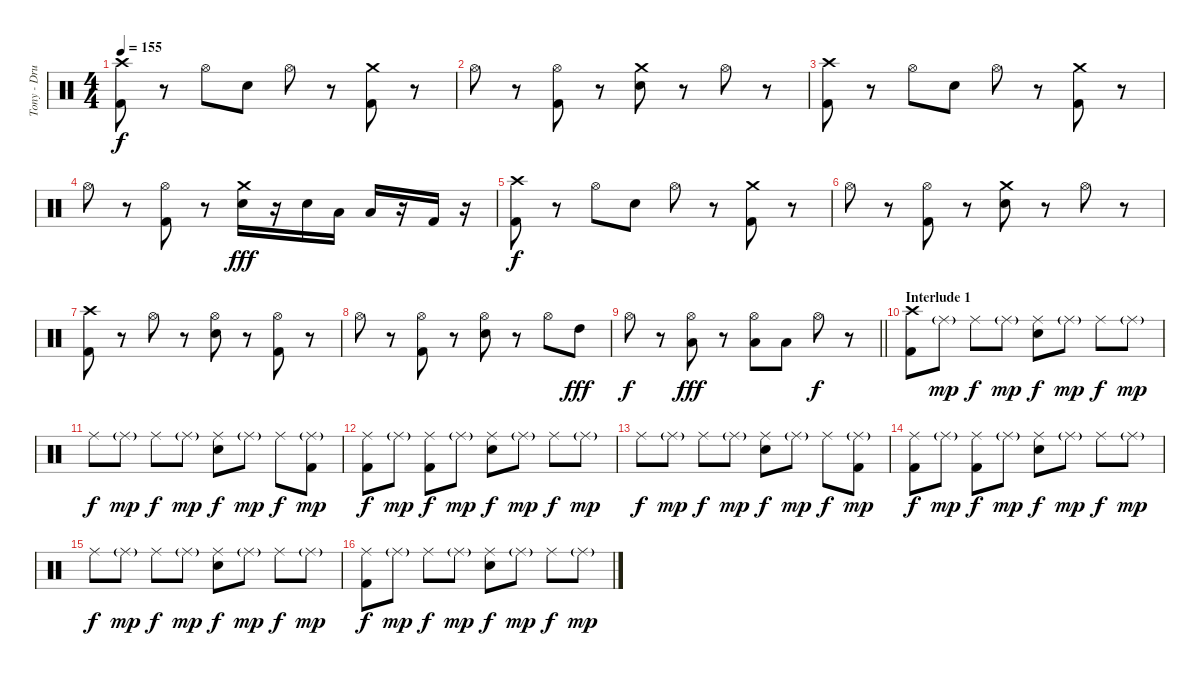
\track ("Tony - Drums" "Tony - Dru") {instrument percussion}
\staff {score}
\articulation defaults
\ts (4 4)
\tempo 155
\clef neutral
\ks c
("Crash high (hit)" "Kick (hit) 2").8{dy f} r.8 "Hi-Hat (open)".8 "Electric Snare (hit)".8 "Hi-Hat (open)".8 r.8 ("Crash medium (hit)" "Kick (hit) 2").8 r.8 |
"Hi-Hat (open)".8 r.8 ("Hi-Hat (open)" "Kick (hit) 2").8 r.8 ("Crash medium (hit)" "Electric Snare (hit)").8 r.8 "Hi-Hat (open)".8 r.8 |
("Crash high (hit)" "Kick (hit) 2").8 r.8 "Hi-Hat (open)".8 "Electric Snare (hit)".8 "Hi-Hat (open)".8 r.8 ("Crash medium (hit)" "Kick (hit) 2").8 r.8 |
"Hi-Hat (open)".8 r.8 ("Hi-Hat (open)" "Kick (hit) 2").8 r.8 ("Crash medium (hit)" "Electric Snare (hit)").16{dy fff} r.16 "Electric Snare (hit)".16 "Low Tom (hit)".16 "Low Floor Tom (hit)".16 r.16 "Kick (hit) 2".16 r.16 |
("Crash high (hit)" "Kick (hit) 2").8{dy f} r.8 "Hi-Hat (open)".8 "Electric Snare (hit)".8 "Hi-Hat (open)".8 r.8 ("Crash medium (hit)" "Kick (hit) 2").8 r.8 |
"Hi-Hat (open)".8 r.8 ("Hi-Hat (open)" "Kick (hit) 2").8 r.8 ("Crash medium (hit)" "Electric Snare (hit)").8 r.8 "Hi-Hat (open)".8 r.8 |
("Crash high (hit)" "Kick (hit) 2").8 r.8 "Hi-Hat (open)".8 r.8 ("Hi-Hat (open)" "Electric Snare (hit)").8 r.8 ("Hi-Hat (open)" "Kick (hit) 2").8 r.8 |
"Hi-Hat (open)".8 r.8 ("Hi-Hat (open)" "Kick (hit) 2").8 r.8 ("Hi-Hat (open)" "Electric Snare (hit)").8 r.8 "Hi-Hat (open)".8 "High Tom (hit)".8{dy fff} |
\barLineRight lightlight "Hi-Hat (open)".8{dy f}
r.8 ("Hi-Hat (open)" "Low Tom (hit)").8{dy fff} r.8 ("Hi-Hat (open)" "Low Floor Tom (hit)").8 "Low Floor Tom (hit)".8 "Hi-Hat (open)".8{dy f} r.8 |
\section ("" "Interlude 1")
("Crash high (hit)" "Kick (hit) 2").8 "Ride (middle)"{g}.8{dy mp} "Ride (middle)".8{dy f} "Ride (middle)"{g}.8{dy mp} ("Ride (middle)" "Electric Snare (hit)").8{dy f} "Ride (middle)"{g}.8{dy mp} "Ride (middle)".8{dy f} "Ride (middle)"{g}.8{dy mp} |
"Ride (middle)".8{dy f} "Ride (middle)"{g}.8{dy mp} "Ride (middle)".8{dy f} "Ride (middle)"{g}.8{dy mp} ("Ride (middle)" "Electric Snare (hit)").8{dy f} "Ride (middle)"{g}.8{dy mp} "Ride (middle)".8{dy f} ("Ride (middle)"{g} "Kick (hit) 2").8{dy mp} |
("Ride (middle)" "Kick (hit) 2").8{dy f} "Ride (middle)"{g}.8{dy mp} ("Ride (middle)" "Kick (hit) 2").8{dy f} "Ride (middle)"{g}.8{dy mp} ("Ride (middle)" "Electric Snare (hit)").8{dy f} "Ride (middle)"{g}.8{dy mp} "Ride (middle)".8{dy f} "Ride (middle)"{g}.8{dy mp} |
"Ride (middle)".8{dy f} "Ride (middle)"{g}.8{dy mp} "Ride (middle)".8{dy f} "Ride (middle)"{g}.8{dy mp} ("Ride (middle)" "Electric Snare (hit)").8{dy f} "Ride (middle)"{g}.8{dy mp} "Ride (middle)".8{dy f} ("Ride (middle)"{g} "Kick (hit) 2").8{dy mp} |
("Ride (middle)" "Kick (hit) 2").8{dy f} "Ride (middle)"{g}.8{dy mp} ("Ride (middle)" "Kick (hit) 2").8{dy f} "Ride (middle)"{g}.8{dy mp} ("Ride (middle)" "Electric Snare (hit)").8{dy f} "Ride (middle)"{g}.8{dy mp} "Ride (middle)".8{dy f} "Ride (middle)"{g}.8{dy mp} |
"Ride (middle)".8{dy f} "Ride (middle)"{g}.8{dy mp} "Ride (middle)".8{dy f} "Ride (middle)"{g}.8{dy mp} ("Ride (middle)" "Electric Snare (hit)").8{dy f} "Ride (middle)"{g}.8{dy mp} "Ride (middle)".8{dy f} "Ride (middle)"{g}.8{dy mp} |
("Ride (middle)" "Kick (hit) 2").8{dy f} "Ride (middle)"{g}.8{dy mp} "Ride (middle)".8{dy f} "Ride (middle)"{g}.8{dy mp} ("Ride (middle)" "Electric Snare (hit)").8{dy f} "Ride (middle)"{g}.8{dy mp} "Ride (middle)".8{dy f} "Ride (middle)"{g}.8{dy mp}
